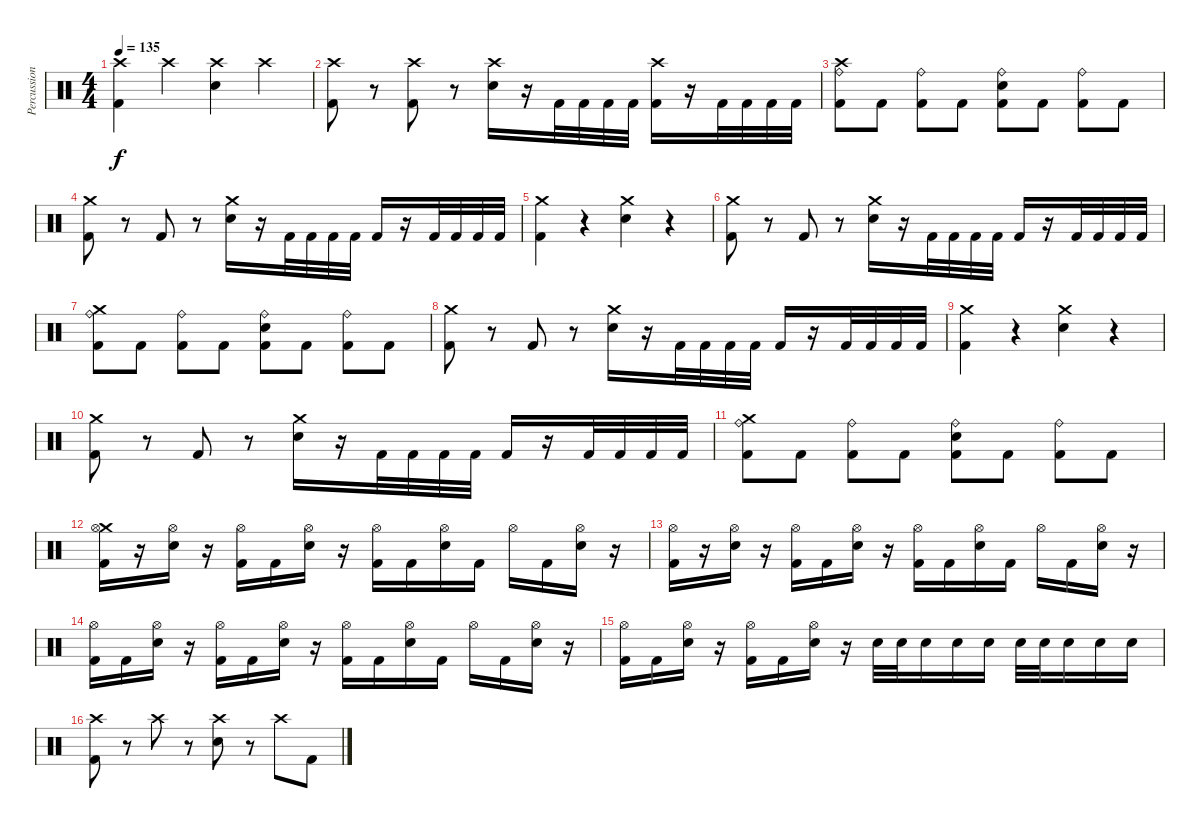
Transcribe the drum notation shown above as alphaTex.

\track ("Percussion" "Percussion") {instrument percussion}
\staff {score}
\articulation defaults
\ts (4 4)
\tempo 135
\clef neutral
\ks c
("Crash high (hit)" "Kick (hit) 2").4{dy f} "Crash high (hit)".4 ("Crash high (hit)" "Electric Snare (hit)").4 "Crash high (hit)".4 |
("Crash high (hit)" "Kick (hit) 2").8 r.8 ("Crash high (hit)" "Kick (hit) 2").8 r.8 ("Crash high (hit)" "Electric Snare (hit)").16 r.16 "Kick (hit) 2".32 "Kick (hit) 2".32 "Kick (hit) 2".32 "Kick (hit) 2".32 ("Crash high (hit)" "Kick (hit) 2").16 r.16 "Kick (hit) 2".32 "Kick (hit) 2".32 "Kick (hit) 2".32 "Kick (hit) 2".32 |
("Crash high (hit)" "Ride (bell)" "Kick (hit) 2").8 "Kick (hit) 2".8 ("Ride (bell)" "Kick (hit) 2").8 "Kick (hit) 2".8 ("Ride (bell)" "Electric Snare (hit)" "Kick (hit) 2").8 "Kick (hit) 2".8 ("Ride (bell)" "Kick (hit) 2").8 "Kick (hit) 2".8 |
("Crash medium (hit)" "Kick (hit) 2").8 r.8 "Kick (hit) 2".8 r.8 ("Crash medium (hit)" "Electric Snare (hit)").16 r.16 "Kick (hit) 2".32 "Kick (hit) 2".32 "Kick (hit) 2".32 "Kick (hit) 2".32 "Kick (hit) 2".16 r.16 "Kick (hit) 2".32 "Kick (hit) 2".32 "Kick (hit) 2".32 "Kick (hit) 2".32 |
("Crash medium (hit)" "Kick (hit) 2").4 r.4 ("Crash medium (hit)" "Electric Snare (hit)").4 r.4 |
("Crash medium (hit)" "Kick (hit) 2").8 r.8 "Kick (hit) 2".8 r.8 ("Crash medium (hit)" "Electric Snare (hit)").16 r.16 "Kick (hit) 2".32 "Kick (hit) 2".32 "Kick (hit) 2".32 "Kick (hit) 2".32 "Kick (hit) 2".16 r.16 "Kick (hit) 2".32 "Kick (hit) 2".32 "Kick (hit) 2".32 "Kick (hit) 2".32 |
("Crash medium (hit)" "Ride (bell)" "Kick (hit) 2").8 "Kick (hit) 2".8 ("Ride (bell)" "Kick (hit) 2").8 "Kick (hit) 2".8 ("Ride (bell)" "Electric Snare (hit)" "Kick (hit) 2").8 "Kick (hit) 2".8 ("Ride (bell)" "Kick (hit) 2").8 "Kick (hit) 2".8 |
("Crash medium (hit)" "Kick (hit) 2").8 r.8 "Kick (hit) 2".8 r.8 ("Crash medium (hit)" "Electric Snare (hit)").16 r.16 "Kick (hit) 2".32 "Kick (hit) 2".32 "Kick (hit) 2".32 "Kick (hit) 2".32 "Kick (hit) 2".16 r.16 "Kick (hit) 2".32 "Kick (hit) 2".32 "Kick (hit) 2".32 "Kick (hit) 2".32 |
("Crash medium (hit)" "Kick (hit) 2").4 r.4 ("Crash medium (hit)" "Electric Snare (hit)").4 r.4 |
("Crash medium (hit)" "Kick (hit) 2").8 r.8 "Kick (hit) 2".8 r.8 ("Crash medium (hit)" "Electric Snare (hit)").16 r.16 "Kick (hit) 2".32 "Kick (hit) 2".32 "Kick (hit) 2".32 "Kick (hit) 2".32 "Kick (hit) 2".16 r.16 "Kick (hit) 2".32 "Kick (hit) 2".32 "Kick (hit) 2".32 "Kick (hit) 2".32 |
("Crash medium (hit)" "Ride (bell)" "Kick (hit) 2").8 "Kick (hit) 2".8 ("Ride (bell)" "Kick (hit) 2").8 "Kick (hit) 2".8 ("Ride (bell)" "Electric Snare (hit)" "Kick (hit) 2").8 "Kick (hit) 2".8 ("Ride (bell)" "Kick (hit) 2").8 "Kick (hit) 2".8 |
("Crash medium (hit)" "Hi-Hat (open)" "Kick (hit) 2").16 r.16 ("Hi-Hat (open)" "Electric Snare (hit)").16 r.16 ("Hi-Hat (open)" "Kick (hit) 2").16 "Kick (hit) 2".16 ("Hi-Hat (open)" "Electric Snare (hit)").16 r.16 ("Hi-Hat (open)" "Kick (hit) 2").16 "Kick (hit) 2".16 ("Hi-Hat (open)" "Electric Snare (hit)").16 "Kick (hit) 2".16 "Hi-Hat (open)".16 "Kick (hit) 2".16 ("Hi-Hat (open)" "Electric Snare (hit)").16 r.16 |
("Hi-Hat (open)" "Kick (hit) 2").16 r.16 ("Hi-Hat (open)" "Electric Snare (hit)").16 r.16 ("Hi-Hat (open)" "Kick (hit) 2").16 "Kick (hit) 2".16 ("Hi-Hat (open)" "Electric Snare (hit)").16 r.16 ("Hi-Hat (open)" "Kick (hit) 2").16 "Kick (hit) 2".16 ("Hi-Hat (open)" "Electric Snare (hit)").16 "Kick (hit) 2".16 "Hi-Hat (open)".16 "Kick (hit) 2".16 ("Hi-Hat (open)" "Electric Snare (hit)").16 r.16 |
("Hi-Hat (open)" "Kick (hit) 2").16 "Kick (hit) 2".16 ("Hi-Hat (open)" "Electric Snare (hit)").16 r.16 ("Hi-Hat (open)" "Kick (hit) 2").16 "Kick (hit) 2".16 ("Hi-Hat (open)" "Electric Snare (hit)").16 r.16 ("Hi-Hat (open)" "Kick (hit) 2").16 "Kick (hit) 2".16 ("Hi-Hat (open)" "Electric Snare (hit)").16 "Kick (hit) 2".16 "Hi-Hat (open)".16 "Kick (hit) 2".16 ("Hi-Hat (open)" "Electric Snare (hit)").16 r.16 |
("Hi-Hat (open)" "Kick (hit) 2").16 "Kick (hit) 2".16 ("Hi-Hat (open)" "Electric Snare (hit)").16 r.16 ("Hi-Hat (open)" "Kick (hit) 2").16 "Kick (hit) 2".16 ("Hi-Hat (open)" "Electric Snare (hit)").16 r.16 "Electric Snare (hit)".32 "Electric Snare (hit)".32 "Electric Snare (hit)".16 "Electric Snare (hit)".16 "Electric Snare (hit)".16 "Electric Snare (hit)".32 "Electric Snare (hit)".32 "Electric Snare (hit)".16 "Electric Snare (hit)".16 "Electric Snare (hit)".16 |
("Crash high (hit)" "Kick (hit) 2").8 r.8 "Crash high (hit)".8 r.8 ("Crash high (hit)" "Electric Snare (hit)").8 r.8 "Crash high (hit)".8 "Kick (hit) 2".8
